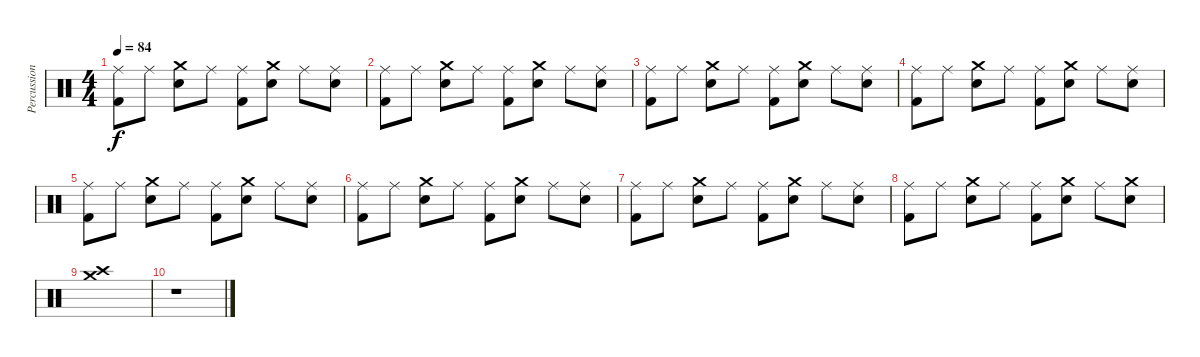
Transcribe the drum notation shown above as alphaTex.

\track ("Percussion" "Percussion") {instrument percussion}
\staff {score}
\articulation defaults
\ts (4 4)
\tempo 84
\clef neutral
\ks c
("Ride (middle)" "Kick (hit) 2").8{dy f} "Ride (middle)".8 ("Crash medium (hit)" "Snare (hit) 2").8 "Ride (middle)".8 ("Ride (middle)" "Kick (hit) 2").8 ("Crash medium (hit)" "Snare (hit) 2").8 "Ride (middle)".8 ("Ride (middle)" "Snare (hit) 2").8 |
("Ride (middle)" "Kick (hit) 2").8 "Ride (middle)".8 ("Crash medium (hit)" "Snare (hit) 2").8 "Ride (middle)".8 ("Ride (middle)" "Kick (hit) 2").8 ("Crash medium (hit)" "Snare (hit) 2").8 "Ride (middle)".8 ("Ride (middle)" "Snare (hit) 2").8 |
("Ride (middle)" "Kick (hit) 2").8 "Ride (middle)".8 ("Crash medium (hit)" "Snare (hit) 2").8 "Ride (middle)".8 ("Ride (middle)" "Kick (hit) 2").8 ("Crash medium (hit)" "Snare (hit) 2").8 "Ride (middle)".8 ("Ride (middle)" "Snare (hit) 2").8 |
("Ride (middle)" "Kick (hit) 2").8 "Ride (middle)".8 ("Crash medium (hit)" "Snare (hit) 2").8 "Ride (middle)".8 ("Ride (middle)" "Kick (hit) 2").8 ("Crash medium (hit)" "Snare (hit) 2").8 "Ride (middle)".8 ("Ride (middle)" "Snare (hit) 2").8 |
("Ride (middle)" "Kick (hit) 2").8 "Ride (middle)".8 ("Crash medium (hit)" "Snare (hit) 2").8 "Ride (middle)".8 ("Ride (middle)" "Kick (hit) 2").8 ("Crash medium (hit)" "Snare (hit) 2").8 "Ride (middle)".8 ("Ride (middle)" "Snare (hit) 2").8 |
("Ride (middle)" "Kick (hit) 2").8 "Ride (middle)".8 ("Crash medium (hit)" "Snare (hit) 2").8 "Ride (middle)".8 ("Ride (middle)" "Kick (hit) 2").8 ("Crash medium (hit)" "Snare (hit) 2").8 "Ride (middle)".8 ("Ride (middle)" "Snare (hit) 2").8 |
("Ride (middle)" "Kick (hit) 2").8 "Ride (middle)".8 ("Crash medium (hit)" "Snare (hit) 2").8 "Ride (middle)".8 ("Ride (middle)" "Kick (hit) 2").8 ("Crash medium (hit)" "Snare (hit) 2").8 "Ride (middle)".8 ("Ride (middle)" "Snare (hit) 2").8 |
("Ride (middle)" "Kick (hit) 2").8 "Ride (middle)".8 ("Crash medium (hit)" "Snare (hit) 2").8 "Ride (middle)".8 ("Ride (middle)" "Kick (hit) 2").8 ("Crash medium (hit)" "Snare (hit) 2").8 "Ride (middle)".8 ("Crash medium (hit)" "Snare (hit) 2").8 |
("Crash high (hit)" "Crash medium (hit)").1 |
r.1
